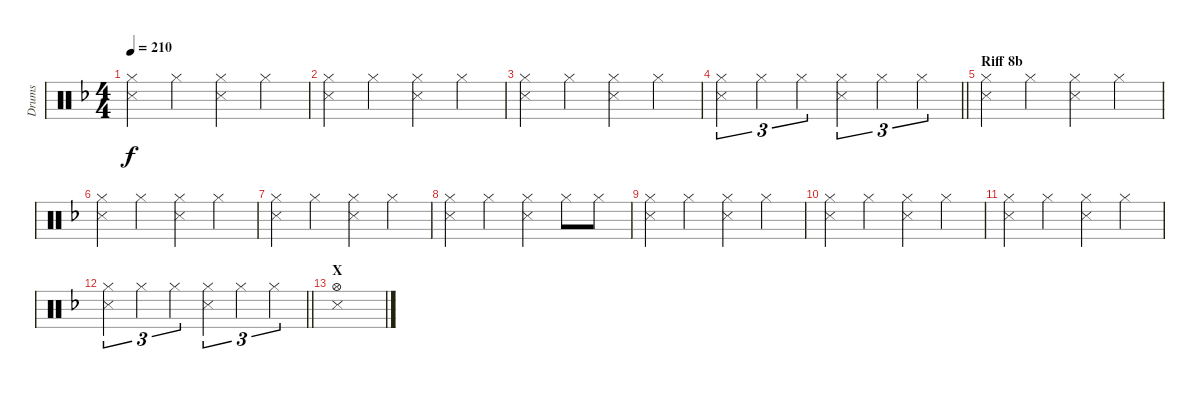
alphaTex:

\track ("Drums" "Drums") {instrument percussion}
\staff {score}
\articulation defaults
\ts (4 4)
\tempo 210
\clef neutral
\ks dminor
("Hi-Hat (closed)" "Snare (side stick) 3").4{dy f} "Hi-Hat (closed)".4 ("Hi-Hat (closed)" "Snare (side stick) 3").4 "Hi-Hat (closed)".4 |
("Hi-Hat (closed)" "Snare (side stick) 3").4 "Hi-Hat (closed)".4 ("Hi-Hat (closed)" "Snare (side stick) 3").4 "Hi-Hat (closed)".4 |
("Hi-Hat (closed)" "Snare (side stick) 3").4 "Hi-Hat (closed)".4 ("Hi-Hat (closed)" "Snare (side stick) 3").4 "Hi-Hat (closed)".4 |
\barLineRight lightlight
("Hi-Hat (closed)" "Snare (side stick) 3").4{tu (3 2)} "Hi-Hat (closed)".4{tu (3 2)} "Hi-Hat (closed)".4{tu (3 2)} ("Hi-Hat (closed)" "Snare (side stick) 3").4{tu (3 2)} "Hi-Hat (closed)".4{tu (3 2)} "Hi-Hat (closed)".4{tu (3 2)} |
\section ("" "Riff 8b")
("Hi-Hat (closed)" "Snare (side stick) 3").4 "Hi-Hat (closed)".4 ("Hi-Hat (closed)" "Snare (side stick) 3").4 "Hi-Hat (closed)".4 |
("Hi-Hat (closed)" "Snare (side stick) 3").4 "Hi-Hat (closed)".4 ("Hi-Hat (closed)" "Snare (side stick) 3").4 "Hi-Hat (closed)".4 |
("Hi-Hat (closed)" "Snare (side stick) 3").4 "Hi-Hat (closed)".4 ("Hi-Hat (closed)" "Snare (side stick) 3").4 "Hi-Hat (closed)".4 |
("Hi-Hat (closed)" "Snare (side stick) 3").4 "Hi-Hat (closed)".4 ("Hi-Hat (closed)" "Snare (side stick) 3").4 "Hi-Hat (closed)".8 "Hi-Hat (closed)".8 |
("Hi-Hat (closed)" "Snare (side stick) 3").4 "Hi-Hat (closed)".4 ("Hi-Hat (closed)" "Snare (side stick) 3").4 "Hi-Hat (closed)".4 |
("Hi-Hat (closed)" "Snare (side stick) 3").4 "Hi-Hat (closed)".4 ("Hi-Hat (closed)" "Snare (side stick) 3").4 "Hi-Hat (closed)".4 |
("Hi-Hat (closed)" "Snare (side stick) 3").4 "Hi-Hat (closed)".4 ("Hi-Hat (closed)" "Snare (side stick) 3").4 "Hi-Hat (closed)".4 |
\barLineRight lightlight
("Hi-Hat (closed)" "Snare (side stick) 3").4{tu (3 2)} "Hi-Hat (closed)".4{tu (3 2)} "Hi-Hat (closed)".4{tu (3 2)} ("Hi-Hat (closed)" "Snare (side stick) 3").4{tu (3 2)} "Hi-Hat (closed)".4{tu (3 2)} "Hi-Hat (closed)".4{tu (3 2)} |
\section ("" "X")
("Hi-Hat (open)" "Snare (side stick) 3").1
